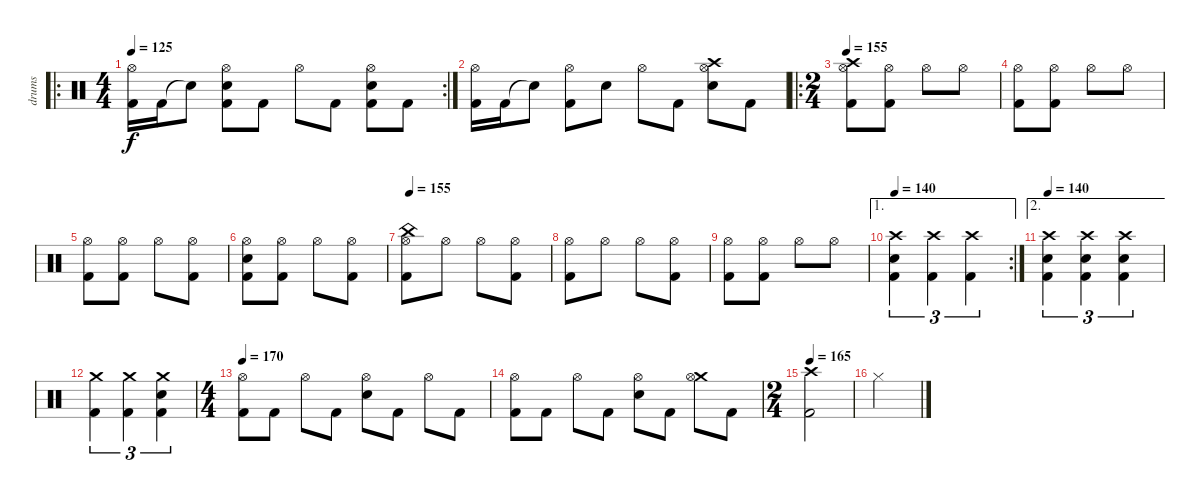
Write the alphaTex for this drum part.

\track ("drums" "drums") {instrument percussion}
\staff {score}
\articulation defaults
\ro
\rc 2
\ts (4 4)
\tempo 125
\clef neutral
\ks c
("Hi-Hat (open)" "Kick (hit) 2").16{dy f} "Kick (hit) 2".16 "Snare (hit)"{t}.8 ("Hi-Hat (open)" "Electric Snare (hit)" "Kick (hit) 2").8 "Kick (hit) 2".8 "Hi-Hat (open)".8 "Kick (hit) 2".8 ("Hi-Hat (open)" "Electric Snare (hit)" "Kick (hit) 2").8 "Kick (hit) 2".8 |
("Hi-Hat (open)" "Kick (hit) 2").16 "Kick (hit) 2".16 "Snare (hit)"{t}.8 ("Hi-Hat (open)" "Kick (hit) 2").8 "Electric Snare (hit)".8 "Hi-Hat (open)".8 "Kick (hit) 2".8 ("Crash high (hit)" "Hi-Hat (open)" "Electric Snare (hit)").8 "Kick (hit) 2".8 |
\ro
\ts (2 4)
\tempo 155
("Crash high (hit)" "Hi-Hat (open)" "Kick (hit) 2").8 ("Hi-Hat (open)" "Kick (hit) 2").8 "Hi-Hat (open)".8 "Hi-Hat (open)".8 |
("Hi-Hat (open)" "Kick (hit) 2").8 ("Hi-Hat (open)" "Kick (hit) 2").8 "Hi-Hat (open)".8 "Hi-Hat (open)".8 |
("Hi-Hat (open)" "Kick (hit) 2").8 ("Hi-Hat (open)" "Kick (hit) 2").8 "Hi-Hat (open)".8 ("Hi-Hat (open)" "Kick (hit) 2").8 |
("Hi-Hat (open)" "Electric Snare (hit)" "Kick (hit) 2").8 ("Hi-Hat (open)" "Kick (hit) 2").8 "Hi-Hat (open)".8 ("Hi-Hat (open)" "Kick (hit) 2").8 |
\tempo 155
("China (hit)" "Hi-Hat (open)" "Kick (hit) 2").8 "Hi-Hat (open)".8 "Hi-Hat (open)".8 ("Hi-Hat (open)" "Kick (hit) 2").8 |
("Hi-Hat (open)" "Kick (hit) 2").8 "Hi-Hat (open)".8 "Hi-Hat (open)".8 ("Hi-Hat (open)" "Kick (hit) 2").8 |
("Hi-Hat (open)" "Kick (hit) 2").8 ("Hi-Hat (open)" "Kick (hit) 2").8 "Hi-Hat (open)".8 "Hi-Hat (open)".8 |
\ae 1
\rc 2
\tempo 140
("Crash high (hit)" "Electric Snare (hit)" "Kick (hit) 2").4{tu (3 2)} ("Crash high (hit)" "Kick (hit) 2").4{tu (3 2)} ("Crash high (hit)" "Kick (hit) 2").4{tu (3 2)} |
\ae 2
\tempo 140
("Crash high (hit)" "Electric Snare (hit)" "Kick (hit) 2").4{tu (3 2)} ("Crash high (hit)" "Electric Snare (hit)" "Kick (hit) 2").4{tu (3 2)} ("Crash high (hit)" "Electric Snare (hit)" "Kick (hit) 2").4{tu (3 2)} |
("Crash medium (hit)" "Kick (hit) 2").4{tu (3 2)} ("Crash medium (hit)" "Kick (hit) 2").4{tu (3 2)} ("Crash medium (hit)" "Electric Snare (hit)" "Kick (hit) 2").4{tu (3 2)} |
\ts (4 4)
\tempo 170
("Hi-Hat (open)" "Kick (hit) 2").8 "Kick (hit) 2".8 "Hi-Hat (open)".8 "Kick (hit) 2".8 ("Hi-Hat (open)" "Electric Snare (hit)").8 "Kick (hit) 2".8 "Hi-Hat (open)".8 "Kick (hit) 2".8 |
("Hi-Hat (open)" "Kick (hit) 2").8 "Kick (hit) 2".8 "Hi-Hat (open)".8 "Kick (hit) 2".8 ("Hi-Hat (open)" "Electric Snare (hit)").8 "Kick (hit) 2".8 ("Crash medium (hit)" "Hi-Hat (open)").8 "Kick (hit) 2".8 |
\ts (2 4)
\tempo 165
("Crash high (hit)" "Kick (hit) 2").2 |
"Hi-Hat (closed)".2
